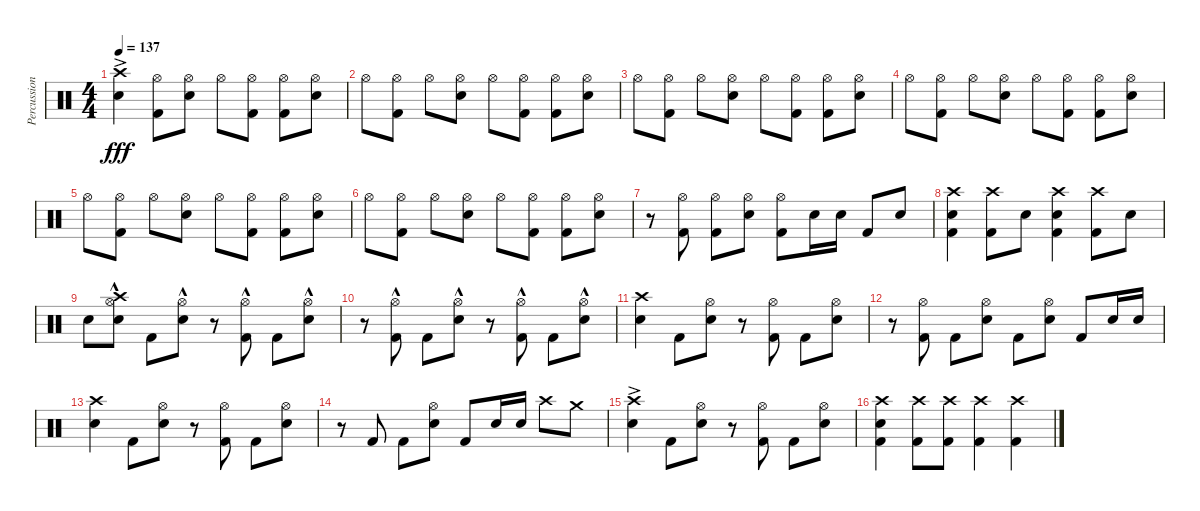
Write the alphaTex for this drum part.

\track ("Percussion" "Percussion") {solo instrument percussion}
\staff {score}
\articulation defaults
\ts (4 4)
\tempo 137
\clef neutral
\ks c
("Crash high (hit)"{ac} "Electric Snare (hit)"{ac}).4{dy fff} ("Kick (hit) 2" "Hi-Hat (open)").8 ("Electric Snare (hit)" "Hi-Hat (open)").8 "Hi-Hat (open)".8 ("Kick (hit) 2" "Hi-Hat (open)").8 ("Kick (hit) 2" "Hi-Hat (open)").8 ("Electric Snare (hit)" "Hi-Hat (open)").8 |
"Hi-Hat (open)".8 ("Kick (hit) 2" "Hi-Hat (open)").8 "Hi-Hat (open)".8 ("Electric Snare (hit)" "Hi-Hat (open)").8 "Hi-Hat (open)".8 ("Kick (hit) 2" "Hi-Hat (open)").8 ("Kick (hit) 2" "Hi-Hat (open)").8 ("Electric Snare (hit)" "Hi-Hat (open)").8 |
"Hi-Hat (open)".8 ("Kick (hit) 2" "Hi-Hat (open)").8 "Hi-Hat (open)".8 ("Electric Snare (hit)" "Hi-Hat (open)").8 "Hi-Hat (open)".8 ("Kick (hit) 2" "Hi-Hat (open)").8 ("Kick (hit) 2" "Hi-Hat (open)").8 ("Electric Snare (hit)" "Hi-Hat (open)").8 |
"Hi-Hat (open)".8 ("Kick (hit) 2" "Hi-Hat (open)").8 "Hi-Hat (open)".8 ("Electric Snare (hit)" "Hi-Hat (open)").8 "Hi-Hat (open)".8 ("Kick (hit) 2" "Hi-Hat (open)").8 ("Kick (hit) 2" "Hi-Hat (open)").8 ("Electric Snare (hit)" "Hi-Hat (open)").8 |
"Hi-Hat (open)".8 ("Kick (hit) 2" "Hi-Hat (open)").8 "Hi-Hat (open)".8 ("Electric Snare (hit)" "Hi-Hat (open)").8 "Hi-Hat (open)".8 ("Kick (hit) 2" "Hi-Hat (open)").8 ("Kick (hit) 2" "Hi-Hat (open)").8 ("Electric Snare (hit)" "Hi-Hat (open)").8 |
"Hi-Hat (open)".8 ("Kick (hit) 2" "Hi-Hat (open)").8 "Hi-Hat (open)".8 ("Electric Snare (hit)" "Hi-Hat (open)").8 "Hi-Hat (open)".8 ("Kick (hit) 2" "Hi-Hat (open)").8 ("Kick (hit) 2" "Hi-Hat (open)").8 ("Electric Snare (hit)" "Hi-Hat (open)").8 |
r.8 ("Hi-Hat (open)" "Kick (hit) 2").8 ("Hi-Hat (open)" "Kick (hit) 2").8 ("Hi-Hat (open)" "Electric Snare (hit)").8 ("Hi-Hat (open)" "Kick (hit) 2").8 "Electric Snare (hit)".16 "Electric Snare (hit)".16 "Kick (hit) 2".8 "Electric Snare (hit)".8 |
("Crash high (hit)" "Electric Snare (hit)" "Kick (hit) 2").4 ("Kick (hit) 2" "Crash high (hit)").8 "Electric Snare (hit)".8 ("Kick (hit) 2" "Electric Snare (hit)" "Crash high (hit)").4 ("Kick (hit) 2" "Crash high (hit)").8 "Electric Snare (hit)".8 |
"Electric Snare (hit)".8 ("Hi-Hat (open)" "Crash high (hit)"{hac} "Electric Snare (hit)").8 "Kick (hit) 2".8 ("Hi-Hat (open)"{hac} "Electric Snare (hit)").8 r.8 ("Kick (hit) 2" "Hi-Hat (open)"{hac}).8 "Kick (hit) 2".8 ("Electric Snare (hit)" "Hi-Hat (open)"{hac}).8 |
r.8 ("Kick (hit) 2" "Hi-Hat (open)"{hac}).8 "Kick (hit) 2".8 ("Electric Snare (hit)" "Hi-Hat (open)"{hac}).8 r.8 ("Kick (hit) 2" "Hi-Hat (open)"{hac}).8 "Kick (hit) 2".8 ("Electric Snare (hit)" "Hi-Hat (open)"{hac}).8 |
("Crash high (hit)" "Electric Snare (hit)").4 "Kick (hit) 2".8 ("Electric Snare (hit)" "Hi-Hat (open)").8 r.8 ("Kick (hit) 2" "Hi-Hat (open)").8 "Kick (hit) 2".8 ("Electric Snare (hit)" "Hi-Hat (open)").8 |
r.8 ("Kick (hit) 2" "Hi-Hat (open)").8 "Kick (hit) 2".8 ("Electric Snare (hit)" "Hi-Hat (open)").8 "Kick (hit) 2".8 ("Electric Snare (hit)" "Hi-Hat (open)").8 "Kick (hit) 2".8 "Electric Snare (hit)".16 "Electric Snare (hit)".16 |
("Crash high (hit)" "Electric Snare (hit)").4 "Kick (hit) 2".8 ("Electric Snare (hit)" "Hi-Hat (open)").8 r.8 ("Kick (hit) 2" "Hi-Hat (open)").8 "Kick (hit) 2".8 ("Electric Snare (hit)" "Hi-Hat (open)").8 |
r.8 "Kick (hit) 2".8 "Kick (hit) 2".8 ("Electric Snare (hit)" "Hi-Hat (open)").8 "Kick (hit) 2".8 "Electric Snare (hit)".16 "Electric Snare (hit)".16 "Crash high (hit)".8 "Crash medium (hit)".8 |
("Crash high (hit)"{ac} "Electric Snare (hit)"{ac}).4 "Kick (hit) 2".8 ("Electric Snare (hit)" "Hi-Hat (open)").8 r.8 ("Kick (hit) 2" "Hi-Hat (open)").8 "Kick (hit) 2".8 ("Electric Snare (hit)" "Hi-Hat (open)").8 |
("Crash high (hit)" "Electric Snare (hit)" "Kick (hit) 2").4 ("Crash high (hit)" "Kick (hit) 2").8 ("Crash high (hit)" "Kick (hit) 2").8 ("Crash high (hit)" "Kick (hit) 2").4 ("Crash high (hit)" "Kick (hit) 2").4
